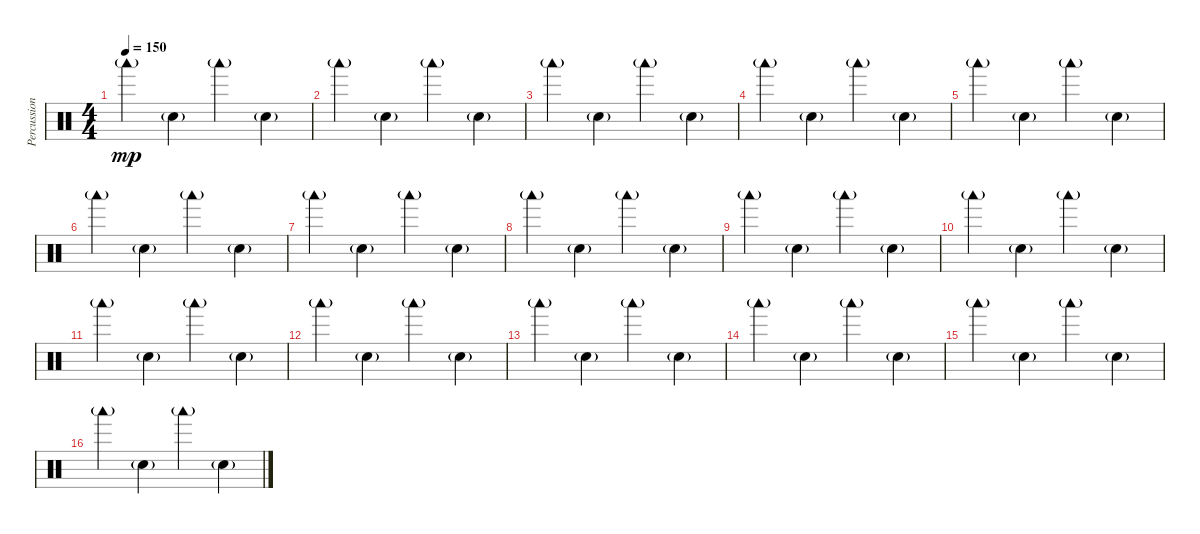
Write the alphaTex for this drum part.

\track ("Percussion" "Percussion") {instrument percussion}
\staff {score}
\articulation defaults
\ts (4 4)
\tempo 150
\clef neutral
\ks c "Woodblock low (hit)"{g}.4{dy mp} "Snare (hit) 2"{g}.4 "Woodblock low (hit)"{g}.4 "Snare (hit) 2"{g}.4
|
"Woodblock low (hit)"{g}.4 "Snare (hit) 2"{g}.4 "Woodblock low (hit)"{g}.4 "Snare (hit) 2"{g}.4 |
"Woodblock low (hit)"{g}.4 "Snare (hit) 2"{g}.4 "Woodblock low (hit)"{g}.4 "Snare (hit) 2"{g}.4 |
"Woodblock low (hit)"{g}.4 "Snare (hit) 2"{g}.4 "Woodblock low (hit)"{g}.4 "Snare (hit) 2"{g}.4 |
"Woodblock low (hit)"{g}.4 "Snare (hit) 2"{g}.4 "Woodblock low (hit)"{g}.4 "Snare (hit) 2"{g}.4 |
"Woodblock low (hit)"{g}.4 "Snare (hit) 2"{g}.4 "Woodblock low (hit)"{g}.4 "Snare (hit) 2"{g}.4 |
"Woodblock low (hit)"{g}.4 "Snare (hit) 2"{g}.4 "Woodblock low (hit)"{g}.4 "Snare (hit) 2"{g}.4 |
"Woodblock low (hit)"{g}.4 "Snare (hit) 2"{g}.4 "Woodblock low (hit)"{g}.4 "Snare (hit) 2"{g}.4 |
"Woodblock low (hit)"{g}.4 "Snare (hit) 2"{g}.4 "Woodblock low (hit)"{g}.4 "Snare (hit) 2"{g}.4 |
"Woodblock low (hit)"{g}.4 "Snare (hit) 2"{g}.4 "Woodblock low (hit)"{g}.4 "Snare (hit) 2"{g}.4 |
"Woodblock low (hit)"{g}.4 "Snare (hit) 2"{g}.4 "Woodblock low (hit)"{g}.4 "Snare (hit) 2"{g}.4 |
"Woodblock low (hit)"{g}.4 "Snare (hit) 2"{g}.4 "Woodblock low (hit)"{g}.4 "Snare (hit) 2"{g}.4 |
"Woodblock low (hit)"{g}.4 "Snare (hit) 2"{g}.4 "Woodblock low (hit)"{g}.4 "Snare (hit) 2"{g}.4 |
"Woodblock low (hit)"{g}.4 "Snare (hit) 2"{g}.4 "Woodblock low (hit)"{g}.4 "Snare (hit) 2"{g}.4 |
"Woodblock low (hit)"{g}.4 "Snare (hit) 2"{g}.4 "Woodblock low (hit)"{g}.4 "Snare (hit) 2"{g}.4 |
"Woodblock low (hit)"{g}.4 "Snare (hit) 2"{g}.4 "Woodblock low (hit)"{g}.4 "Snare (hit) 2"{g}.4
